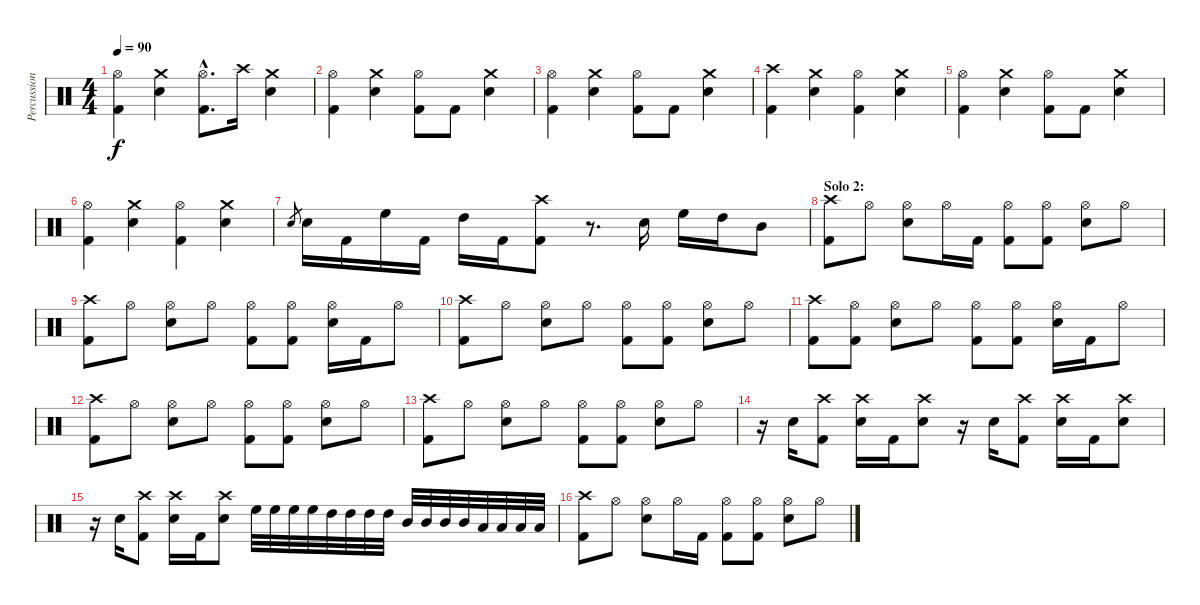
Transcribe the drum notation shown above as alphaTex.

\track ("Percussion" "Percussion") {instrument percussion}
\staff {score}
\articulation defaults
\ts (4 4)
\tempo 90
\clef neutral
\ks c
("Hi-Hat (open)" "Kick (hit) 2").4{dy f} ("Crash medium (hit)" "Electric Snare (hit)").4 ("Hi-Hat (open)"{hac} "Kick (hit) 2"{hac}).8{d} "Crash high (hit)".16 ("Crash medium (hit)" "Electric Snare (hit)").4 |
("Hi-Hat (open)" "Kick (hit) 2").4 ("Crash medium (hit)" "Electric Snare (hit)").4 ("Hi-Hat (open)" "Kick (hit) 2").8 "Kick (hit) 2".8 ("Crash medium (hit)" "Electric Snare (hit)").4 |
("Hi-Hat (open)" "Kick (hit) 2").4 ("Crash medium (hit)" "Electric Snare (hit)").4 ("Hi-Hat (open)" "Kick (hit) 2").8 "Kick (hit) 2".8 ("Crash medium (hit)" "Electric Snare (hit)").4 |
("Crash high (hit)" "Kick (hit) 2").4 ("Crash medium (hit)" "Electric Snare (hit)").4 ("Hi-Hat (open)" "Kick (hit) 2").4 ("Crash medium (hit)" "Electric Snare (hit)").4 |
("Hi-Hat (open)" "Kick (hit) 2").4 ("Crash medium (hit)" "Electric Snare (hit)").4 ("Hi-Hat (open)" "Kick (hit) 2").8 "Kick (hit) 2".8 ("Crash medium (hit)" "Electric Snare (hit)").4 |
("Hi-Hat (open)" "Kick (hit) 2").4 ("Crash medium (hit)" "Electric Snare (hit)").4 ("Hi-Hat (open)" "Kick (hit) 2").4 ("Crash medium (hit)" "Electric Snare (hit)").4 |
"Electric Snare (hit)".8{gr} "Electric Snare (hit)".16 "Kick (hit) 2".16 "High Floor Tom (hit)".16 "Kick (hit) 2".16 "High Tom (hit)".16 "Kick (hit) 2".16 ("Crash high (hit)" "Kick (hit) 2").8 r.8{d} "Electric Snare (hit)".16 "High Floor Tom (hit)".16 "High Tom (hit)".16 "Mid Tom (hit)".8 |
\section ("" "Solo 2:")
("Crash high (hit)" "Kick (hit) 2").8 "Hi-Hat (open)".8 ("Hi-Hat (open)" "Electric Snare (hit)").8 "Hi-Hat (open)".16 "Kick (hit) 2".16 ("Hi-Hat (open)" "Kick (hit) 2").8 ("Hi-Hat (open)" "Kick (hit) 2").8 ("Hi-Hat (open)" "Electric Snare (hit)").8 "Hi-Hat (open)".8 |
("Crash high (hit)" "Kick (hit) 2").8 "Hi-Hat (open)".8 ("Hi-Hat (open)" "Electric Snare (hit)").8 "Hi-Hat (open)".8 ("Hi-Hat (open)" "Kick (hit) 2").8 ("Hi-Hat (open)" "Kick (hit) 2").8 ("Hi-Hat (open)" "Electric Snare (hit)").16 "Kick (hit) 2".16 "Hi-Hat (open)".8 |
("Crash high (hit)" "Kick (hit) 2").8 "Hi-Hat (open)".8 ("Hi-Hat (open)" "Electric Snare (hit)").8 "Hi-Hat (open)".8 ("Hi-Hat (open)" "Kick (hit) 2").8 ("Hi-Hat (open)" "Kick (hit) 2").8 ("Hi-Hat (open)" "Electric Snare (hit)").8 "Hi-Hat (open)".8 |
("Crash high (hit)" "Kick (hit) 2").8 ("Hi-Hat (open)" "Kick (hit) 2").8 ("Hi-Hat (open)" "Electric Snare (hit)").8 "Hi-Hat (open)".8 ("Hi-Hat (open)" "Kick (hit) 2").8 ("Hi-Hat (open)" "Kick (hit) 2").8 ("Hi-Hat (open)" "Electric Snare (hit)").16 "Kick (hit) 2".16 "Hi-Hat (open)".8 |
("Crash high (hit)" "Kick (hit) 2").8 "Hi-Hat (open)".8 ("Hi-Hat (open)" "Electric Snare (hit)").8 "Hi-Hat (open)".8 ("Hi-Hat (open)" "Kick (hit) 2").8 ("Hi-Hat (open)" "Kick (hit) 2").8 ("Hi-Hat (open)" "Electric Snare (hit)").8 "Hi-Hat (open)".8 |
("Crash high (hit)" "Kick (hit) 2").8 "Hi-Hat (open)".8 ("Hi-Hat (open)" "Electric Snare (hit)").8 "Hi-Hat (open)".8 ("Hi-Hat (open)" "Kick (hit) 2").8 ("Hi-Hat (open)" "Kick (hit) 2").8 ("Hi-Hat (open)" "Electric Snare (hit)").8 "Hi-Hat (open)".8 |
r.16 "Electric Snare (hit)".16 ("Crash high (hit)" "Kick (hit) 2").8 ("Crash high (hit)" "Electric Snare (hit)").16 "Kick (hit) 2".16 ("Crash high (hit)" "Electric Snare (hit)").8 r.16 "Electric Snare (hit)".16 ("Crash high (hit)" "Kick (hit) 2").8 ("Crash high (hit)" "Electric Snare (hit)").16 "Kick (hit) 2".16 ("Crash high (hit)" "Electric Snare (hit)").8 |
r.16 "Electric Snare (hit)".16 ("Crash high (hit)" "Kick (hit) 2").8 ("Crash high (hit)" "Electric Snare (hit)").16 "Kick (hit) 2".16 ("Crash high (hit)" "Electric Snare (hit)").8 "High Floor Tom (hit)".32 "High Floor Tom (hit)".32 "High Floor Tom (hit)".32 "High Floor Tom (hit)".32 "High Tom (hit)".32 "High Tom (hit)".32 "High Tom (hit)".32 "High Tom (hit)".32 "Mid Tom (hit)".32 "Mid Tom (hit)".32 "Mid Tom (hit)".32 "Mid Tom (hit)".32 "Low Tom (hit)".32 "Low Tom (hit)".32 "Low Tom (hit)".32 "Low Tom (hit)".32 |
("Crash high (hit)" "Kick (hit) 2").8 "Hi-Hat (open)".8 ("Hi-Hat (open)" "Electric Snare (hit)").8 "Hi-Hat (open)".16 "Kick (hit) 2".16 ("Hi-Hat (open)" "Kick (hit) 2").8 ("Hi-Hat (open)" "Kick (hit) 2").8 ("Hi-Hat (open)" "Electric Snare (hit)").8 "Hi-Hat (open)".8
